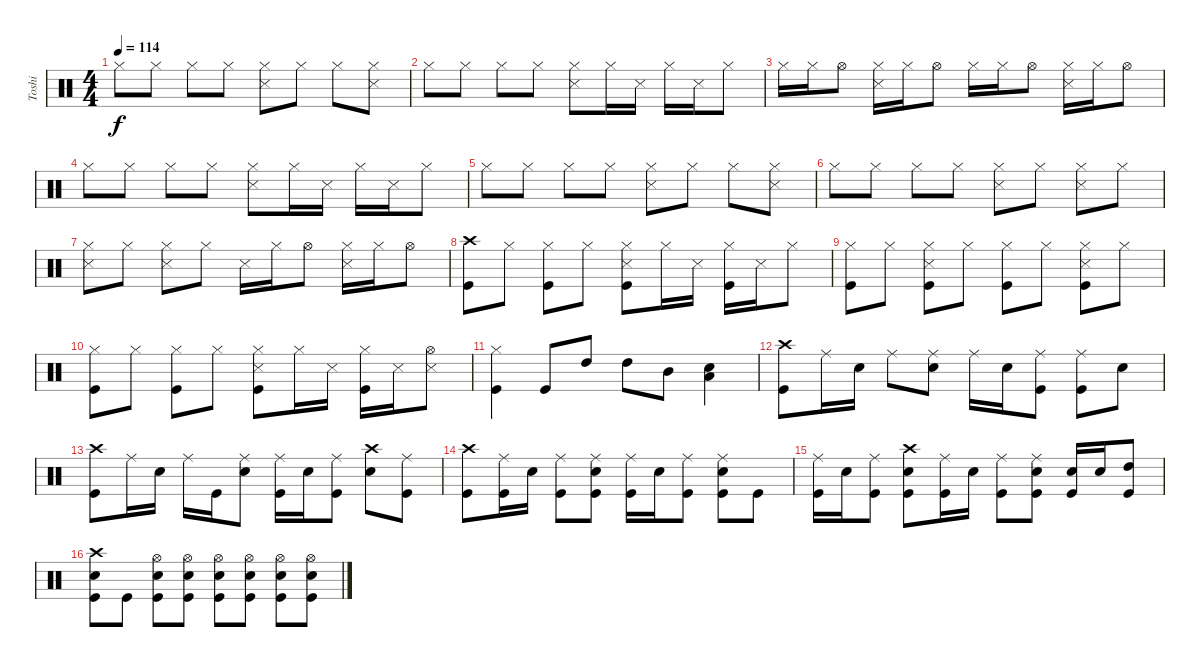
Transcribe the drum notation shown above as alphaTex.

\track ("Toshi" "Toshi") {instrument percussion}
\staff {score}
\articulation defaults
\ts (4 4)
\tempo 114
\clef neutral
\ks c "Hi-Hat (closed)".8{dy f} "Hi-Hat (closed)".8 "Hi-Hat (closed)".8 "Hi-Hat (closed)".8
("Hi-Hat (closed)" "Snare (side stick) 3").8 "Hi-Hat (closed)".8 "Hi-Hat (closed)".8 ("Hi-Hat (closed)" "Snare (side stick) 3").8 |
"Hi-Hat (closed)".8 "Hi-Hat (closed)".8 "Hi-Hat (closed)".8 "Hi-Hat (closed)".8 ("Hi-Hat (closed)" "Snare (side stick) 3").8 "Hi-Hat (closed)".16 "Snare (side stick) 3".16 "Hi-Hat (closed)".16 "Snare (side stick) 3".16 "Hi-Hat (closed)".8 |
"Hi-Hat (closed)".16 "Hi-Hat (closed)".16 "Hi-Hat (open)".8 ("Hi-Hat (closed)" "Snare (side stick) 3").16 "Hi-Hat (closed)".16 "Hi-Hat (open)".8 "Hi-Hat (closed)".16 "Hi-Hat (closed)".16 "Hi-Hat (open)".8 ("Hi-Hat (closed)" "Snare (side stick) 3").16 "Hi-Hat (closed)".16 "Hi-Hat (open)".8 |
"Hi-Hat (closed)".8 "Hi-Hat (closed)".8 "Hi-Hat (closed)".8 "Hi-Hat (closed)".8 ("Hi-Hat (closed)" "Snare (side stick) 3").8 "Hi-Hat (closed)".16 "Snare (side stick) 3".16 "Hi-Hat (closed)".16 "Snare (side stick) 3".16 "Hi-Hat (closed)".8 |
"Hi-Hat (closed)".8 "Hi-Hat (closed)".8 "Hi-Hat (closed)".8 "Hi-Hat (closed)".8 ("Hi-Hat (closed)" "Snare (side stick) 3").8 "Hi-Hat (closed)".8 "Hi-Hat (closed)".8 ("Hi-Hat (closed)" "Snare (side stick) 3").8 |
"Hi-Hat (closed)".8 "Hi-Hat (closed)".8 "Hi-Hat (closed)".8 "Hi-Hat (closed)".8 ("Hi-Hat (closed)" "Snare (side stick) 3").8 "Hi-Hat (closed)".8 ("Hi-Hat (closed)" "Snare (side stick) 3").8 "Hi-Hat (closed)".8 |
("Hi-Hat (closed)" "Snare (side stick) 3").8 "Hi-Hat (closed)".8 ("Hi-Hat (closed)" "Snare (side stick) 3").8 "Hi-Hat (closed)".8 "Snare (side stick) 3".16 "Hi-Hat (closed)".16 "Hi-Hat (open)".8 ("Hi-Hat (closed)" "Snare (side stick) 3").16 "Hi-Hat (closed)".16 "Hi-Hat (open)".8 |
("Crash high (hit)" "Kick (hit)").8 "Hi-Hat (closed)".8 ("Hi-Hat (closed)" "Kick (hit)").8 "Hi-Hat (closed)".8 ("Hi-Hat (closed)" "Kick (hit)" "Snare (side stick) 3").8 "Hi-Hat (closed)".16 "Snare (side stick) 3".16 ("Hi-Hat (closed)" "Kick (hit)").16 "Snare (side stick) 3".16 "Hi-Hat (closed)".8 |
("Hi-Hat (closed)" "Kick (hit)").8 "Hi-Hat (closed)".8 ("Hi-Hat (closed)" "Kick (hit)" "Snare (side stick) 3").8 "Hi-Hat (closed)".8 ("Hi-Hat (closed)" "Kick (hit)").8 "Hi-Hat (closed)".8 ("Hi-Hat (closed)" "Kick (hit)" "Snare (side stick) 3").8 "Hi-Hat (closed)".8 |
("Hi-Hat (closed)" "Kick (hit)").8 "Hi-Hat (closed)".8 ("Hi-Hat (closed)" "Kick (hit)").8 "Hi-Hat (closed)".8 ("Hi-Hat (closed)" "Kick (hit)" "Snare (side stick) 3").8 "Hi-Hat (closed)".16 "Snare (side stick) 3".16 ("Hi-Hat (closed)" "Kick (hit)").16 "Snare (side stick) 3".16 ("Hi-Hat (open)" "Snare (side stick) 3").8 |
("Hi-Hat (closed)" "Kick (hit)").4 "Kick (hit)".8 "High Tom (hit)".8 "High Tom (hit)".8 "Mid Tom (hit)".8 ("Snare (hit) 2" "Low Tom (hit)").4 |
("Crash high (hit)" "Kick (hit)").8 "Ride (middle)".16 "Snare (hit) 2".16 "Ride (middle)".8 ("Ride (middle)" "Snare (hit) 2").8 "Ride (middle)".16 "Snare (hit) 2".16 ("Ride (middle)" "Kick (hit)").8 ("Ride (middle)" "Kick (hit)").8 "Snare (hit) 2".8 |
("Crash high (hit)" "Kick (hit)").8 "Ride (middle)".16 "Snare (hit) 2".16 "Ride (middle)".16 "Kick (hit)".16 ("Ride (middle)" "Snare (hit) 2").8 ("Ride (middle)" "Kick (hit)").16 "Snare (hit) 2".16 ("Ride (middle)" "Kick (hit)").8 ("Crash high (hit)" "Snare (hit) 2").8 ("Ride (middle)" "Kick (hit)").8 |
("Crash high (hit)" "Kick (hit)").8 ("Ride (middle)" "Kick (hit)").16 "Snare (hit) 2".16 ("Ride (middle)" "Kick (hit)").8 ("Ride (middle)" "Kick (hit)" "Snare (hit) 2").8 ("Ride (middle)" "Kick (hit)").16 "Snare (hit) 2".16 ("Ride (middle)" "Kick (hit)").8 ("Ride (middle)" "Kick (hit)" "Snare (hit) 2").8 "Kick (hit)".8 |
("Ride (middle)" "Kick (hit)").16 "Snare (hit) 2".16 ("Ride (middle)" "Kick (hit)").8 ("Crash high (hit)" "Kick (hit)" "Snare (hit) 2").8 ("Ride (middle)" "Kick (hit)").16 "Snare (hit) 2".16 ("Ride (middle)" "Kick (hit)").8 ("Ride (middle)" "Kick (hit)" "Snare (hit) 2").8 ("Kick (hit)" "Snare (hit) 2").16 "Snare (hit) 2".16 ("Kick (hit)" "High Tom (hit)").8 |
("Crash high (hit)" "Kick (hit)" "Snare (hit) 2").8 "Kick (hit)".8 ("Hi-Hat (open)" "Kick (hit)" "Snare (hit) 2").8 ("Hi-Hat (open)" "Kick (hit)" "Snare (hit) 2").8 ("Hi-Hat (open)" "Kick (hit)" "Snare (hit) 2").8 ("Hi-Hat (open)" "Kick (hit)" "Snare (hit) 2").8 ("Hi-Hat (open)" "Kick (hit)" "Snare (hit) 2").8 ("Hi-Hat (open)" "Kick (hit)" "Snare (hit) 2").8
